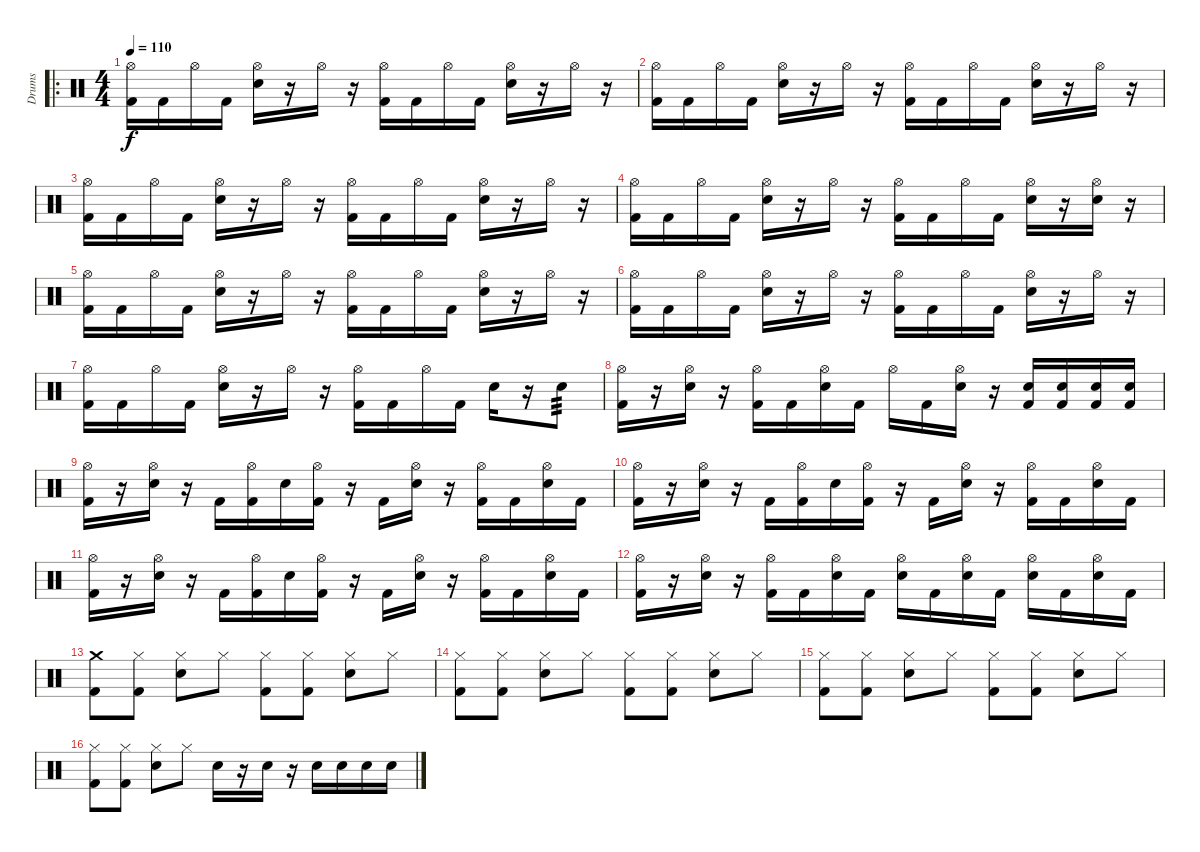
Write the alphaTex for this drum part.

\track ("Drums" "Drums") {instrument percussion}
\staff {score}
\articulation defaults
\ro
\ts (4 4)
\tempo 110
\clef neutral
\ks c
("Hi-Hat (open)" "Kick (hit) 2").16{dy f} "Kick (hit) 2".16 "Hi-Hat (open)".16 "Kick (hit) 2".16 ("Hi-Hat (open)" "Electric Snare (hit)").16 r.16 "Hi-Hat (open)".16 r.16 ("Hi-Hat (open)" "Kick (hit) 2").16 "Kick (hit) 2".16 "Hi-Hat (open)".16 "Kick (hit) 2".16 ("Hi-Hat (open)" "Electric Snare (hit)").16 r.16 "Hi-Hat (open)".16 r.16 |
("Hi-Hat (open)" "Kick (hit) 2").16 "Kick (hit) 2".16 "Hi-Hat (open)".16 "Kick (hit) 2".16 ("Hi-Hat (open)" "Electric Snare (hit)").16 r.16 "Hi-Hat (open)".16 r.16 ("Hi-Hat (open)" "Kick (hit) 2").16 "Kick (hit) 2".16 "Hi-Hat (open)".16 "Kick (hit) 2".16 ("Hi-Hat (open)" "Electric Snare (hit)").16 r.16 "Hi-Hat (open)".16 r.16 |
("Hi-Hat (open)" "Kick (hit) 2").16 "Kick (hit) 2".16 "Hi-Hat (open)".16 "Kick (hit) 2".16 ("Hi-Hat (open)" "Electric Snare (hit)").16 r.16 "Hi-Hat (open)".16 r.16 ("Hi-Hat (open)" "Kick (hit) 2").16 "Kick (hit) 2".16 "Hi-Hat (open)".16 "Kick (hit) 2".16 ("Hi-Hat (open)" "Electric Snare (hit)").16 r.16 "Hi-Hat (open)".16 r.16 |
("Hi-Hat (open)" "Kick (hit) 2").16 "Kick (hit) 2".16 "Hi-Hat (open)".16 "Kick (hit) 2".16 ("Hi-Hat (open)" "Electric Snare (hit)").16 r.16 "Hi-Hat (open)".16 r.16 ("Hi-Hat (open)" "Kick (hit) 2").16 "Kick (hit) 2".16 "Hi-Hat (open)".16 "Kick (hit) 2".16 ("Hi-Hat (open)" "Electric Snare (hit)").16 r.16 ("Hi-Hat (open)" "Electric Snare (hit)").16 r.16 |
("Hi-Hat (open)" "Kick (hit) 2").16 "Kick (hit) 2".16 "Hi-Hat (open)".16 "Kick (hit) 2".16 ("Hi-Hat (open)" "Electric Snare (hit)").16 r.16 "Hi-Hat (open)".16 r.16 ("Hi-Hat (open)" "Kick (hit) 2").16 "Kick (hit) 2".16 "Hi-Hat (open)".16 "Kick (hit) 2".16 ("Hi-Hat (open)" "Electric Snare (hit)").16 r.16 "Hi-Hat (open)".16 r.16 |
("Hi-Hat (open)" "Kick (hit) 2").16 "Kick (hit) 2".16 "Hi-Hat (open)".16 "Kick (hit) 2".16 ("Hi-Hat (open)" "Electric Snare (hit)").16 r.16 "Hi-Hat (open)".16 r.16 ("Hi-Hat (open)" "Kick (hit) 2").16 "Kick (hit) 2".16 "Hi-Hat (open)".16 "Kick (hit) 2".16 ("Hi-Hat (open)" "Electric Snare (hit)").16 r.16 "Hi-Hat (open)".16 r.16 |
("Hi-Hat (open)" "Kick (hit) 2").16 "Kick (hit) 2".16 "Hi-Hat (open)".16 "Kick (hit) 2".16 ("Hi-Hat (open)" "Electric Snare (hit)").16 r.16 "Hi-Hat (open)".16 r.16 ("Hi-Hat (open)" "Kick (hit) 2").16 "Kick (hit) 2".16 "Hi-Hat (open)".16 "Kick (hit) 2".16 "Electric Snare (hit)".16 r.16 "Electric Snare (hit)".8{tp 3} |
("Hi-Hat (open)" "Kick (hit) 2").16 r.16 ("Hi-Hat (open)" "Electric Snare (hit)").16 r.16 ("Hi-Hat (open)" "Kick (hit) 2").16 "Kick (hit) 2".16 ("Hi-Hat (open)" "Electric Snare (hit)").16 "Kick (hit) 2".16 "Hi-Hat (open)".16 "Kick (hit) 2".16 ("Hi-Hat (open)" "Electric Snare (hit)").16 r.16 ("Electric Snare (hit)" "Kick (hit) 2").16 ("Electric Snare (hit)" "Kick (hit) 2").16 ("Electric Snare (hit)" "Kick (hit) 2").16 ("Electric Snare (hit)" "Kick (hit) 2").16 |
("Hi-Hat (open)" "Kick (hit) 2").16 r.16 ("Hi-Hat (open)" "Electric Snare (hit)").16 r.16 "Kick (hit) 2".16 ("Hi-Hat (open)" "Kick (hit) 2").16 "Electric Snare (hit)".16 ("Hi-Hat (open)" "Kick (hit) 2").16 r.16 "Kick (hit) 2".16 ("Hi-Hat (open)" "Electric Snare (hit)").16 r.16 ("Hi-Hat (open)" "Kick (hit) 2").16 "Kick (hit) 2".16 ("Hi-Hat (open)" "Electric Snare (hit)").16 "Kick (hit) 2".16 |
("Hi-Hat (open)" "Kick (hit) 2").16 r.16 ("Hi-Hat (open)" "Electric Snare (hit)").16 r.16 "Kick (hit) 2".16 ("Hi-Hat (open)" "Kick (hit) 2").16 "Electric Snare (hit)".16 ("Hi-Hat (open)" "Kick (hit) 2").16 r.16 "Kick (hit) 2".16 ("Hi-Hat (open)" "Electric Snare (hit)").16 r.16 ("Hi-Hat (open)" "Kick (hit) 2").16 "Kick (hit) 2".16 ("Hi-Hat (open)" "Electric Snare (hit)").16 "Kick (hit) 2".16 |
("Hi-Hat (open)" "Kick (hit) 2").16 r.16 ("Hi-Hat (open)" "Electric Snare (hit)").16 r.16 "Kick (hit) 2".16 ("Hi-Hat (open)" "Kick (hit) 2").16 "Electric Snare (hit)".16 ("Hi-Hat (open)" "Kick (hit) 2").16 r.16 "Kick (hit) 2".16 ("Hi-Hat (open)" "Electric Snare (hit)").16 r.16 ("Hi-Hat (open)" "Kick (hit) 2").16 "Kick (hit) 2".16 ("Hi-Hat (open)" "Electric Snare (hit)").16 "Kick (hit) 2".16 |
("Hi-Hat (open)" "Kick (hit) 2").16 r.16 ("Hi-Hat (open)" "Electric Snare (hit)").16 r.16 ("Hi-Hat (open)" "Kick (hit) 2").16 "Kick (hit) 2".16 ("Hi-Hat (open)" "Electric Snare (hit)").16 "Kick (hit) 2".16 ("Hi-Hat (open)" "Electric Snare (hit)").16 "Kick (hit) 2".16 ("Hi-Hat (open)" "Electric Snare (hit)").16 "Kick (hit) 2".16 ("Hi-Hat (open)" "Electric Snare (hit)").16 "Kick (hit) 2".16 ("Hi-Hat (open)" "Electric Snare (hit)").16 "Kick (hit) 2".16 |
("Crash medium (hit)" "Kick (hit) 2").8 ("Hi-Hat (closed)" "Kick (hit) 2").8 ("Hi-Hat (closed)" "Electric Snare (hit)").8 "Hi-Hat (closed)".8 ("Hi-Hat (closed)" "Kick (hit) 2").8 ("Hi-Hat (closed)" "Kick (hit) 2").8 ("Hi-Hat (closed)" "Electric Snare (hit)").8 "Hi-Hat (closed)".8 |
("Hi-Hat (closed)" "Kick (hit) 2").8 ("Hi-Hat (closed)" "Kick (hit) 2").8 ("Hi-Hat (closed)" "Electric Snare (hit)").8 "Hi-Hat (closed)".8 ("Hi-Hat (closed)" "Kick (hit) 2").8 ("Hi-Hat (closed)" "Kick (hit) 2").8 ("Hi-Hat (closed)" "Electric Snare (hit)").8 "Hi-Hat (closed)".8 |
("Hi-Hat (closed)" "Kick (hit) 2").8 ("Hi-Hat (closed)" "Kick (hit) 2").8 ("Hi-Hat (closed)" "Electric Snare (hit)").8 "Hi-Hat (closed)".8 ("Hi-Hat (closed)" "Kick (hit) 2").8 ("Hi-Hat (closed)" "Kick (hit) 2").8 ("Hi-Hat (closed)" "Electric Snare (hit)").8 "Hi-Hat (closed)".8 |
("Hi-Hat (closed)" "Kick (hit) 2").8 ("Hi-Hat (closed)" "Kick (hit) 2").8 ("Hi-Hat (closed)" "Electric Snare (hit)").8 "Hi-Hat (closed)".8 "Electric Snare (hit)".16 r.16 "Electric Snare (hit)".16 r.16 "Electric Snare (hit)".16 "Electric Snare (hit)".16 "Electric Snare (hit)".16 "Electric Snare (hit)".16
